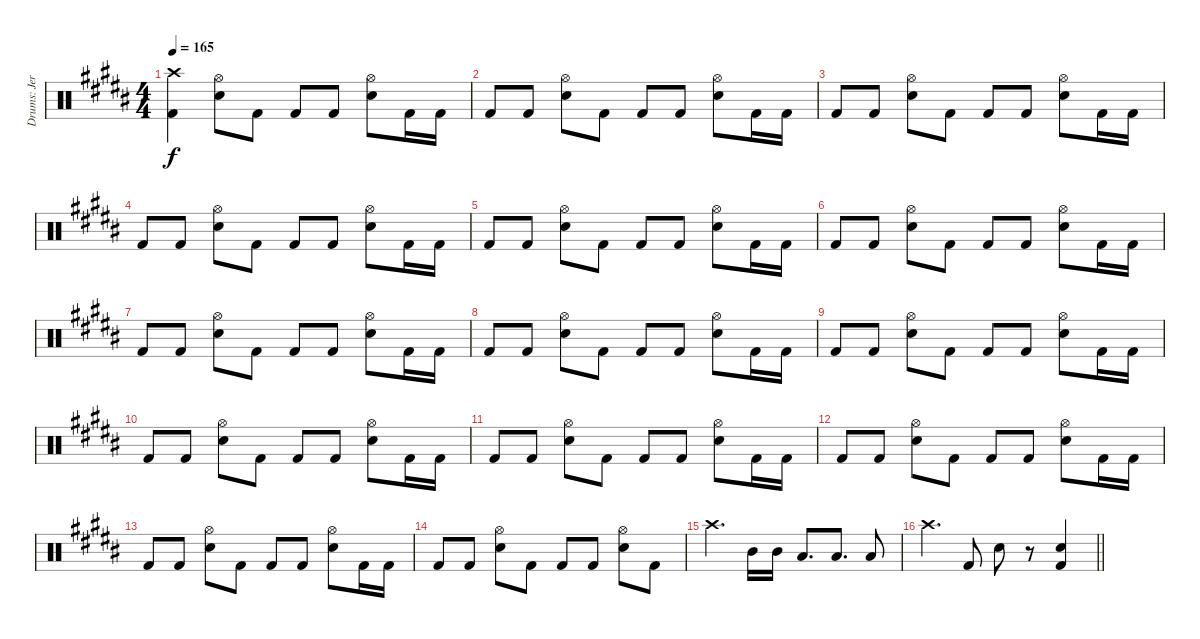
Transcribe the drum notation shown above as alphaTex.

\track ("Drums: Jere Luokkamäki" "Drums: Jer") {instrument percussion}
\staff {score}
\articulation defaults
\ts (4 4)
\section ("" "")
\tempo 165
\clef neutral
\ks g#minor
("Crash high (hit)" "Kick (hit) 2").4{dy f} ("Hi-Hat (open)" "Electric Snare (hit)").8 "Kick (hit) 2".8 "Kick (hit) 2".8 "Kick (hit) 2".8 ("Hi-Hat (open)" "Electric Snare (hit)").8 "Kick (hit) 2".16 "Kick (hit) 2".16 |
"Kick (hit) 2".8 "Kick (hit) 2".8 ("Hi-Hat (open)" "Electric Snare (hit)").8 "Kick (hit) 2".8 "Kick (hit) 2".8 "Kick (hit) 2".8 ("Hi-Hat (open)" "Electric Snare (hit)").8 "Kick (hit) 2".16 "Kick (hit) 2".16 |
"Kick (hit) 2".8 "Kick (hit) 2".8 ("Hi-Hat (open)" "Electric Snare (hit)").8 "Kick (hit) 2".8 "Kick (hit) 2".8 "Kick (hit) 2".8 ("Hi-Hat (open)" "Electric Snare (hit)").8 "Kick (hit) 2".16 "Kick (hit) 2".16 |
"Kick (hit) 2".8 "Kick (hit) 2".8 ("Hi-Hat (open)" "Electric Snare (hit)").8 "Kick (hit) 2".8 "Kick (hit) 2".8 "Kick (hit) 2".8 ("Hi-Hat (open)" "Electric Snare (hit)").8 "Kick (hit) 2".16 "Kick (hit) 2".16 |
"Kick (hit) 2".8 "Kick (hit) 2".8 ("Hi-Hat (open)" "Electric Snare (hit)").8 "Kick (hit) 2".8 "Kick (hit) 2".8 "Kick (hit) 2".8 ("Hi-Hat (open)" "Electric Snare (hit)").8 "Kick (hit) 2".16 "Kick (hit) 2".16 |
"Kick (hit) 2".8 "Kick (hit) 2".8 ("Hi-Hat (open)" "Electric Snare (hit)").8 "Kick (hit) 2".8 "Kick (hit) 2".8 "Kick (hit) 2".8 ("Hi-Hat (open)" "Electric Snare (hit)").8 "Kick (hit) 2".16 "Kick (hit) 2".16 |
"Kick (hit) 2".8 "Kick (hit) 2".8 ("Hi-Hat (open)" "Electric Snare (hit)").8 "Kick (hit) 2".8 "Kick (hit) 2".8 "Kick (hit) 2".8 ("Hi-Hat (open)" "Electric Snare (hit)").8 "Kick (hit) 2".16 "Kick (hit) 2".16 |
"Kick (hit) 2".8 "Kick (hit) 2".8 ("Hi-Hat (open)" "Electric Snare (hit)").8 "Kick (hit) 2".8 "Kick (hit) 2".8 "Kick (hit) 2".8 ("Hi-Hat (open)" "Electric Snare (hit)").8 "Kick (hit) 2".16 "Kick (hit) 2".16 |
"Kick (hit) 2".8 "Kick (hit) 2".8 ("Hi-Hat (open)" "Electric Snare (hit)").8 "Kick (hit) 2".8 "Kick (hit) 2".8 "Kick (hit) 2".8 ("Hi-Hat (open)" "Electric Snare (hit)").8 "Kick (hit) 2".16 "Kick (hit) 2".16 |
"Kick (hit) 2".8 "Kick (hit) 2".8 ("Hi-Hat (open)" "Electric Snare (hit)").8 "Kick (hit) 2".8 "Kick (hit) 2".8 "Kick (hit) 2".8 ("Hi-Hat (open)" "Electric Snare (hit)").8 "Kick (hit) 2".16 "Kick (hit) 2".16 |
"Kick (hit) 2".8 "Kick (hit) 2".8 ("Hi-Hat (open)" "Electric Snare (hit)").8 "Kick (hit) 2".8 "Kick (hit) 2".8 "Kick (hit) 2".8 ("Hi-Hat (open)" "Electric Snare (hit)").8 "Kick (hit) 2".16 "Kick (hit) 2".16 |
"Kick (hit) 2".8 "Kick (hit) 2".8 ("Hi-Hat (open)" "Electric Snare (hit)").8 "Kick (hit) 2".8 "Kick (hit) 2".8 "Kick (hit) 2".8 ("Hi-Hat (open)" "Electric Snare (hit)").8 "Kick (hit) 2".16 "Kick (hit) 2".16 |
"Kick (hit) 2".8 "Kick (hit) 2".8 ("Hi-Hat (open)" "Electric Snare (hit)").8 "Kick (hit) 2".8 "Kick (hit) 2".8 "Kick (hit) 2".8 ("Hi-Hat (open)" "Electric Snare (hit)").8 "Kick (hit) 2".16 "Kick (hit) 2".16 |
"Kick (hit) 2".8 "Kick (hit) 2".8 ("Hi-Hat (open)" "Electric Snare (hit)").8 "Kick (hit) 2".8 "Kick (hit) 2".8 "Kick (hit) 2".8 ("Hi-Hat (open)" "Electric Snare (hit)").8 "Kick (hit) 2".8 |
"Crash high (hit)".4{d} "Mid Tom (hit)".16 "Mid Tom (hit)".16 "Low Tom (hit)".8{d} "Low Tom (hit)".8{d} "Low Tom (hit)".8 |
\barLineRight lightlight "Crash high (hit)".4{d} "Kick (hit) 2".8 "Electric Snare (hit)".8
r.8 ("Electric Snare (hit)" "Kick (hit) 2").4
